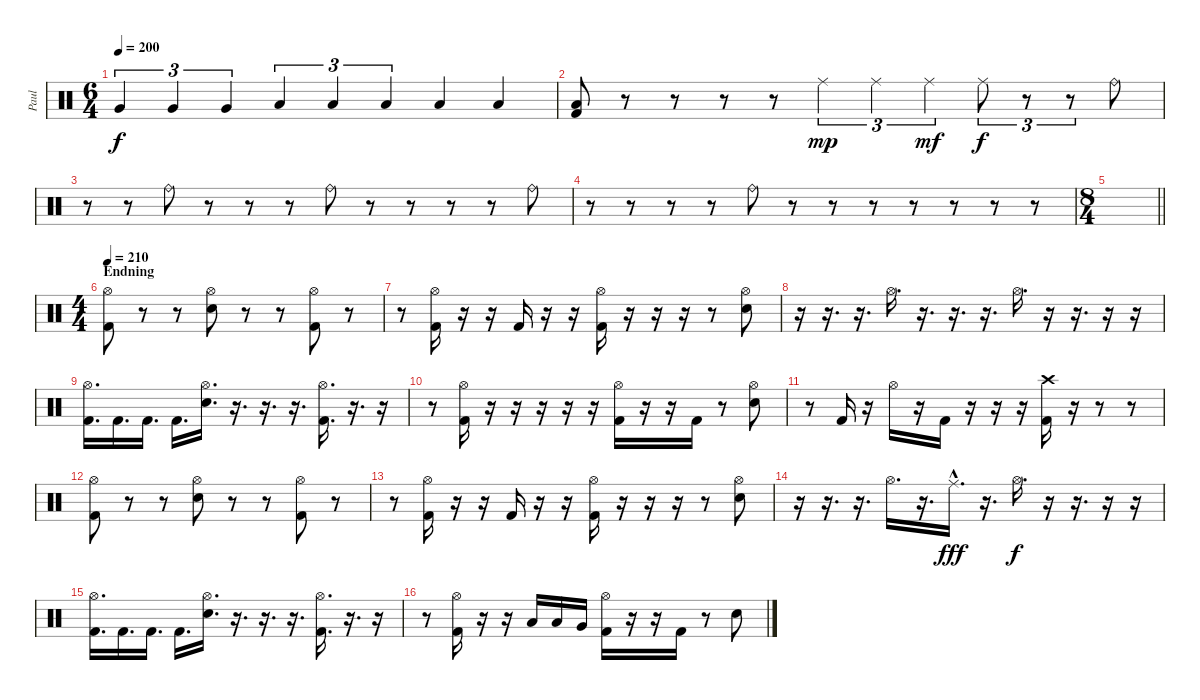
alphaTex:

\track ("Paul " "Paul ") {instrument percussion}
\staff {score}
\articulation defaults
\ts (6 4)
\tempo 200
\clef neutral
\ks c "Very Low Tom (hit)".4{tu (3 2) dy f} "Very Low Tom (hit)".4{tu (3 2)} "Very Low Tom (hit)".4{tu (3 2)} "Low Floor Tom (hit)".4{tu (3 2)} "Low Floor Tom (hit)".4{tu (3 2)} "Low Floor Tom (hit)".4{tu (3 2)} "Low Floor Tom (hit)".4 "Low Floor Tom (hit)".4
|
("Low Floor Tom (hit)" "Kick (hit) 2").8 r.8 r.8 r.8 r.8 "Ride (middle)".4{tu (3 2) dy mp} "Ride (middle)".4{tu (3 2)} "Ride (middle)".4{tu (3 2) dy mf} "Ride (middle)".8{tu (3 2) dy f} r.8{tu (3 2)} r.8{tu (3 2)} "Ride (bell)".8 |
r.8 r.8 "Ride (bell)".8 r.8 r.8 r.8 "Ride (bell)".8 r.8 r.8 r.8 r.8 "Ride (bell)".8 |
r.8 r.8 r.8 r.8 "Ride (bell)".8 r.8 r.8 r.8 r.8 r.8 r.8 r.8 |
\ts (8 4)
\barLineRight lightlight
|
\ts (4 4)
\section ("" "Endning ")
\tempo 210
("Kick (hit) 2" "Hi-Hat (open)").8 r.8 r.8 ("Electric Snare (hit)" "Hi-Hat (open)").8 r.8 r.8 ("Kick (hit) 2" "Hi-Hat (open)").8 r.8 |
r.8 ("Kick (hit) 2" "Hi-Hat (open)").16 r.16 r.16 "Kick (hit) 2".16 r.16 r.16 ("Kick (hit) 2" "Hi-Hat (open)").16 r.16 r.16 r.16 r.8 ("Electric Snare (hit)" "Hi-Hat (open)").8 |
r.16 r.16{d} r.16{d} "Hi-Hat (open)".16{d} r.16{d} r.16{d} r.16{d} "Hi-Hat (open)".16{d} r.16 r.16{d} r.16 r.16 |
("Kick (hit) 2" "Hi-Hat (open)").16{d} "Kick (hit) 2".16{d} "Kick (hit) 2".16{d} "Kick (hit) 2".16{d} ("Electric Snare (hit)" "Hi-Hat (open)").16{d} r.16{d} r.16{d} r.16{d} ("Kick (hit) 2" "Hi-Hat (open)").16{d} r.16{d} r.16 |
r.8 ("Kick (hit) 2" "Hi-Hat (open)").16 r.16 r.16 r.16 r.16 r.16 ("Kick (hit) 2" "Hi-Hat (open)").16 r.16 r.16 "Kick (hit) 2".16 r.8 ("Electric Snare (hit)" "Hi-Hat (open)").8 |
r.8 "Kick (hit) 2".16 r.16 "Hi-Hat (open)".16 r.16 "Kick (hit) 2".16 r.16 r.16 r.16 ("Kick (hit) 2" "Crash high (hit)").16 r.16 r.8 r.8 |
("Kick (hit) 2" "Hi-Hat (open)").8 r.8 r.8 ("Electric Snare (hit)" "Hi-Hat (open)").8 r.8 r.8 ("Kick (hit) 2" "Hi-Hat (open)").8 r.8 |
r.8 ("Kick (hit) 2" "Hi-Hat (open)").16 r.16 r.16 "Kick (hit) 2".16 r.16 r.16 ("Kick (hit) 2" "Hi-Hat (open)").16 r.16 r.16 r.16 r.8 ("Electric Snare (hit)" "Hi-Hat (open)").8 |
r.16 r.16{d} r.16{d} "Hi-Hat (open)".16{d} r.16{d} "Ride (middle)"{hac}.16{d dy fff} r.16{d} "Hi-Hat (open)".16{d dy f} r.16 r.16{d} r.16 r.16 |
("Kick (hit) 2" "Hi-Hat (open)").16{d} "Kick (hit) 2".16{d} "Kick (hit) 2".16{d} "Kick (hit) 2".16{d} ("Electric Snare (hit)" "Hi-Hat (open)").16{d} r.16{d} r.16{d} r.16{d} ("Kick (hit) 2" "Hi-Hat (open)").16{d} r.16{d} r.16 |
r.8 ("Kick (hit) 2" "Hi-Hat (open)").16 r.16 r.16 "Low Tom (hit)".16 "Low Tom (hit)".16 "Very Low Tom (hit)".16 ("Kick (hit) 2" "Hi-Hat (open)").16 r.16 r.16 "Kick (hit) 2".16 r.8 "Electric Snare (hit)".8
